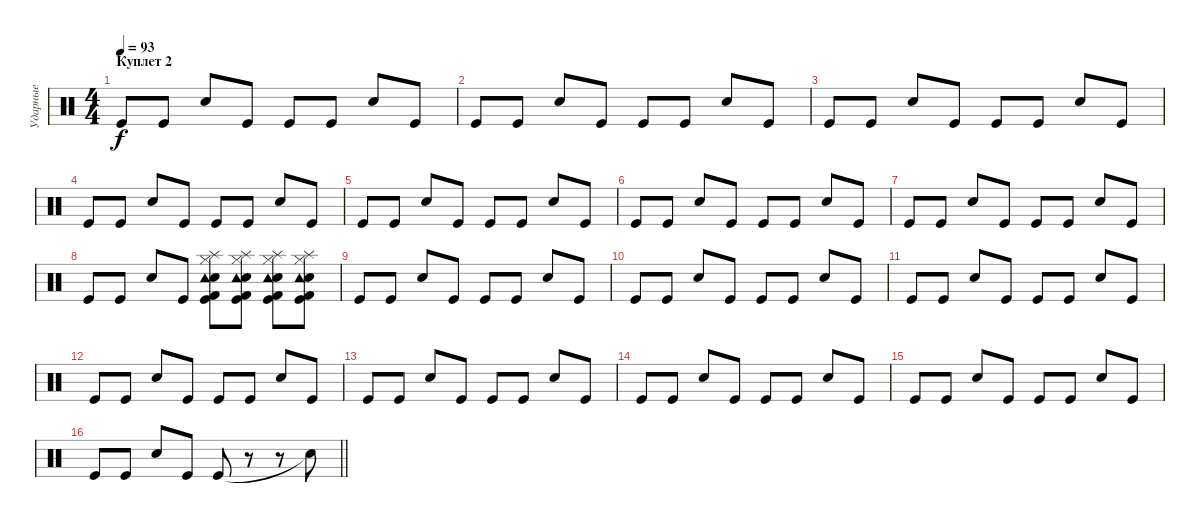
\track ("Ударные" "Ударные") {instrument percussion}
\staff {score}
\articulation defaults
\ts (4 4)
\section ("" "Куплет 2")
\tempo 93
\clef neutral
\ks c "Kick (hit)".8{dy f} "Kick (hit)".8 "Snare (hit) 2".8 "Kick (hit)".8 "Kick (hit)".8 "Kick (hit)".8 "Snare (hit) 2".8 "Kick (hit)".8
|
"Kick (hit)".8 "Kick (hit)".8 "Snare (hit) 2".8 "Kick (hit)".8 "Kick (hit)".8 "Kick (hit)".8 "Snare (hit) 2".8 "Kick (hit)".8 |
"Kick (hit)".8 "Kick (hit)".8 "Snare (hit) 2".8 "Kick (hit)".8 "Kick (hit)".8 "Kick (hit)".8 "Snare (hit) 2".8 "Kick (hit)".8 |
"Kick (hit)".8 "Kick (hit)".8 "Snare (hit) 2".8 "Kick (hit)".8 "Kick (hit)".8 "Kick (hit)".8 "Snare (hit) 2".8 "Kick (hit)".8 |
"Kick (hit)".8 "Kick (hit)".8 "Snare (hit) 2".8 "Kick (hit)".8 "Kick (hit)".8 "Kick (hit)".8 "Snare (hit) 2".8 "Kick (hit)".8 |
"Kick (hit)".8 "Kick (hit)".8 "Snare (hit) 2".8 "Kick (hit)".8 "Kick (hit)".8 "Kick (hit)".8 "Snare (hit) 2".8 "Kick (hit)".8 |
"Kick (hit)".8 "Kick (hit)".8 "Snare (hit) 2".8 "Kick (hit)".8 "Kick (hit)".8 "Kick (hit)".8 "Snare (hit) 2".8 "Kick (hit)".8 |
"Kick (hit)".8 "Kick (hit)".8 "Snare (hit) 2".8 "Kick (hit)".8 ("Kick (hit)" "Snare (hit) 2" "Kick (hit) 2" "Splash (hit)" "Tambourine (hit)" "Hi-Hat (closed)").8 ("Kick (hit)" "Snare (hit) 2" "Kick (hit) 2" "Splash (hit)" "Tambourine (hit)" "Hi-Hat (closed)").8 ("Kick (hit)" "Snare (hit) 2" "Kick (hit) 2" "Splash (hit)" "Tambourine (hit)" "Hi-Hat (closed)").8 ("Kick (hit)" "Snare (hit) 2" "Kick (hit) 2" "Splash (hit)" "Tambourine (hit)" "Hi-Hat (closed)").8 |
"Kick (hit)".8 "Kick (hit)".8 "Snare (hit) 2".8 "Kick (hit)".8 "Kick (hit)".8 "Kick (hit)".8 "Snare (hit) 2".8 "Kick (hit)".8 |
"Kick (hit)".8 "Kick (hit)".8 "Snare (hit) 2".8 "Kick (hit)".8 "Kick (hit)".8 "Kick (hit)".8 "Snare (hit) 2".8 "Kick (hit)".8 |
"Kick (hit)".8 "Kick (hit)".8 "Snare (hit) 2".8 "Kick (hit)".8 "Kick (hit)".8 "Kick (hit)".8 "Snare (hit) 2".8 "Kick (hit)".8 |
"Kick (hit)".8 "Kick (hit)".8 "Snare (hit) 2".8 "Kick (hit)".8 "Kick (hit)".8 "Kick (hit)".8 "Snare (hit) 2".8 "Kick (hit)".8 |
"Kick (hit)".8 "Kick (hit)".8 "Snare (hit) 2".8 "Kick (hit)".8 "Kick (hit)".8 "Kick (hit)".8 "Snare (hit) 2".8 "Kick (hit)".8 |
"Kick (hit)".8 "Kick (hit)".8 "Snare (hit) 2".8 "Kick (hit)".8 "Kick (hit)".8 "Kick (hit)".8 "Snare (hit) 2".8 "Kick (hit)".8 |
"Kick (hit)".8 "Kick (hit)".8 "Snare (hit) 2".8 "Kick (hit)".8 "Kick (hit)".8 "Kick (hit)".8 "Snare (hit) 2".8 "Kick (hit)".8 |
\barLineRight lightlight "Kick (hit)".8 "Kick (hit)".8 "Snare (hit) 2".8 "Kick (hit)".8 "Kick (hit)".8
r.8 r.8 "Snare (hit)"{t}.8
